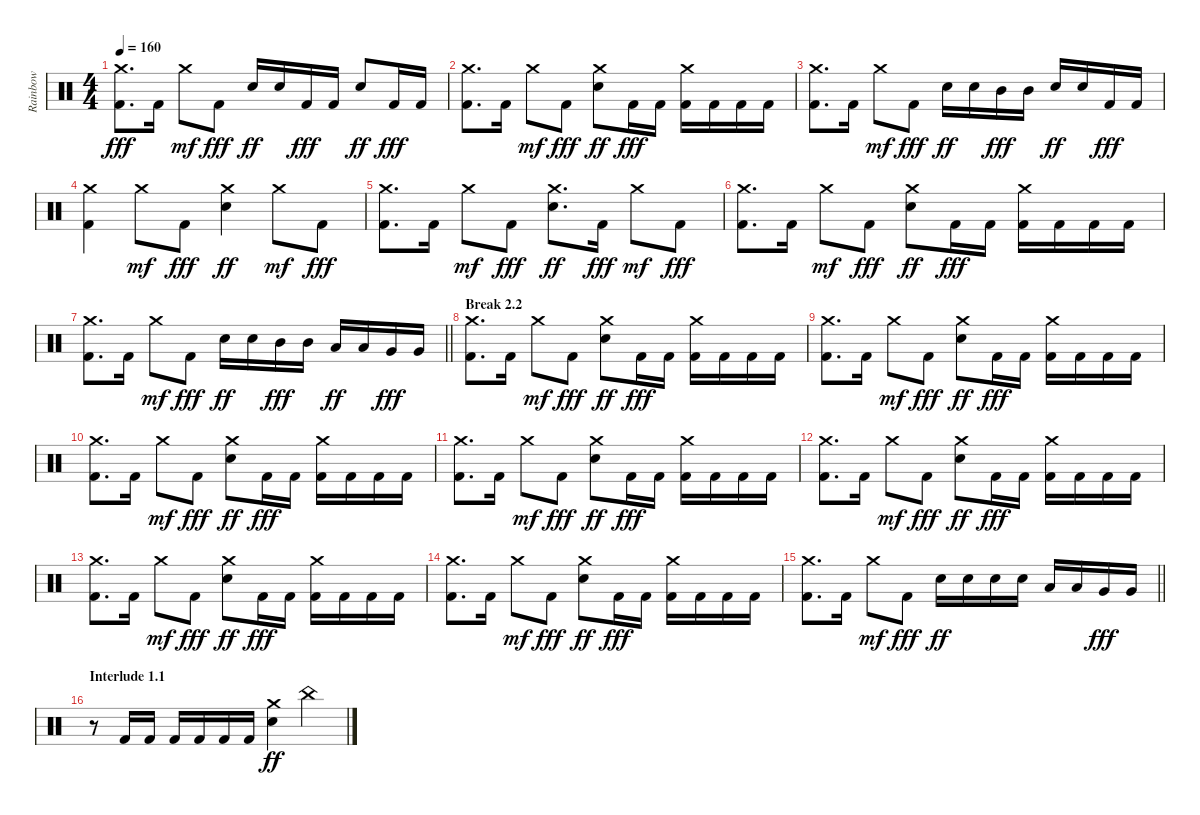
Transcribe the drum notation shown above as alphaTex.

\track ("Rainbow" "Rainbow") {instrument percussion}
\staff {score}
\articulation defaults
\ts (4 4)
\tempo 160
\clef neutral
\ks c
("Crash medium (hit)" "Kick (hit) 2").8{d dy fff} "Kick (hit) 2".16 "Crash medium (hit)".8{dy mf} "Kick (hit) 2".8{dy fff} "Electric Snare (hit)".16{dy ff} "Electric Snare (hit)".16 "Kick (hit) 2".16{dy fff} "Kick (hit) 2".16 "Electric Snare (hit)".8{dy ff} "Kick (hit) 2".16{dy fff} "Kick (hit) 2".16 |
("Crash medium (hit)" "Kick (hit) 2").8{d} "Kick (hit) 2".16 "Crash medium (hit)".8{dy mf} "Kick (hit) 2".8{dy fff} ("Crash medium (hit)" "Electric Snare (hit)").8{dy ff} "Kick (hit) 2".16{dy fff} "Kick (hit) 2".16 ("Crash medium (hit)" "Kick (hit) 2").16 "Kick (hit) 2".16 "Kick (hit) 2".16 "Kick (hit) 2".16 |
("Crash medium (hit)" "Kick (hit) 2").8{d} "Kick (hit) 2".16 "Crash medium (hit)".8{dy mf} "Kick (hit) 2".8{dy fff} "Electric Snare (hit)".16{dy ff} "Electric Snare (hit)".16 "Mid Tom (hit)".16{dy fff} "Mid Tom (hit)".16 "Electric Snare (hit)".16{dy ff} "Electric Snare (hit)".16 "Kick (hit) 2".16{dy fff} "Kick (hit) 2".16 |
("Crash medium (hit)" "Kick (hit) 2").4 "Crash medium (hit)".8{dy mf} "Kick (hit) 2".8{dy fff} ("Crash medium (hit)" "Electric Snare (hit)").4{dy ff} "Crash medium (hit)".8{dy mf} "Kick (hit) 2".8{dy fff} |
("Crash medium (hit)" "Kick (hit) 2").8{d} "Kick (hit) 2".16 "Crash medium (hit)".8{dy mf} "Kick (hit) 2".8{dy fff} ("Crash medium (hit)" "Electric Snare (hit)").8{d dy ff} "Kick (hit) 2".16{dy fff} "Crash medium (hit)".8{dy mf} "Kick (hit) 2".8{dy fff} |
("Crash medium (hit)" "Kick (hit) 2").8{d} "Kick (hit) 2".16 "Crash medium (hit)".8{dy mf} "Kick (hit) 2".8{dy fff} ("Crash medium (hit)" "Electric Snare (hit)").8{dy ff} "Kick (hit) 2".16{dy fff} "Kick (hit) 2".16 ("Crash medium (hit)" "Kick (hit) 2").16 "Kick (hit) 2".16 "Kick (hit) 2".16 "Kick (hit) 2".16 |
\barLineRight lightlight
("Crash medium (hit)" "Kick (hit) 2").8{d} "Kick (hit) 2".16 "Crash medium (hit)".8{dy mf} "Kick (hit) 2".8{dy fff} "Electric Snare (hit)".16{dy ff} "Electric Snare (hit)".16 "Mid Tom (hit)".16{dy fff} "Mid Tom (hit)".16 "Low Tom (hit)".16{dy ff} "Low Tom (hit)".16 "Very Low Tom (hit)".16{dy fff} "Very Low Tom (hit)".16 |
\section ("" "Break 2.2")
("Crash medium (hit)" "Kick (hit) 2").8{d} "Kick (hit) 2".16 "Crash medium (hit)".8{dy mf} "Kick (hit) 2".8{dy fff} ("Crash medium (hit)" "Electric Snare (hit)").8{dy ff} "Kick (hit) 2".16{dy fff} "Kick (hit) 2".16 ("Crash medium (hit)" "Kick (hit) 2").16 "Kick (hit) 2".16 "Kick (hit) 2".16 "Kick (hit) 2".16 |
("Crash medium (hit)" "Kick (hit) 2").8{d} "Kick (hit) 2".16 "Crash medium (hit)".8{dy mf} "Kick (hit) 2".8{dy fff} ("Crash medium (hit)" "Electric Snare (hit)").8{dy ff} "Kick (hit) 2".16{dy fff} "Kick (hit) 2".16 ("Crash medium (hit)" "Kick (hit) 2").16 "Kick (hit) 2".16 "Kick (hit) 2".16 "Kick (hit) 2".16 |
("Crash medium (hit)" "Kick (hit) 2").8{d} "Kick (hit) 2".16 "Crash medium (hit)".8{dy mf} "Kick (hit) 2".8{dy fff} ("Crash medium (hit)" "Electric Snare (hit)").8{dy ff} "Kick (hit) 2".16{dy fff} "Kick (hit) 2".16 ("Crash medium (hit)" "Kick (hit) 2").16 "Kick (hit) 2".16 "Kick (hit) 2".16 "Kick (hit) 2".16 |
("Crash medium (hit)" "Kick (hit) 2").8{d} "Kick (hit) 2".16 "Crash medium (hit)".8{dy mf} "Kick (hit) 2".8{dy fff} ("Crash medium (hit)" "Electric Snare (hit)").8{dy ff} "Kick (hit) 2".16{dy fff} "Kick (hit) 2".16 ("Crash medium (hit)" "Kick (hit) 2").16 "Kick (hit) 2".16 "Kick (hit) 2".16 "Kick (hit) 2".16 |
("Crash medium (hit)" "Kick (hit) 2").8{d} "Kick (hit) 2".16 "Crash medium (hit)".8{dy mf} "Kick (hit) 2".8{dy fff} ("Crash medium (hit)" "Electric Snare (hit)").8{dy ff} "Kick (hit) 2".16{dy fff} "Kick (hit) 2".16 ("Crash medium (hit)" "Kick (hit) 2").16 "Kick (hit) 2".16 "Kick (hit) 2".16 "Kick (hit) 2".16 |
("Crash medium (hit)" "Kick (hit) 2").8{d} "Kick (hit) 2".16 "Crash medium (hit)".8{dy mf} "Kick (hit) 2".8{dy fff} ("Crash medium (hit)" "Electric Snare (hit)").8{dy ff} "Kick (hit) 2".16{dy fff} "Kick (hit) 2".16 ("Crash medium (hit)" "Kick (hit) 2").16 "Kick (hit) 2".16 "Kick (hit) 2".16 "Kick (hit) 2".16 |
("Crash medium (hit)" "Kick (hit) 2").8{d} "Kick (hit) 2".16 "Crash medium (hit)".8{dy mf} "Kick (hit) 2".8{dy fff} ("Crash medium (hit)" "Electric Snare (hit)").8{dy ff} "Kick (hit) 2".16{dy fff} "Kick (hit) 2".16 ("Crash medium (hit)" "Kick (hit) 2").16 "Kick (hit) 2".16 "Kick (hit) 2".16 "Kick (hit) 2".16 |
\barLineRight lightlight
("Crash medium (hit)" "Kick (hit) 2").8{d} "Kick (hit) 2".16 "Crash medium (hit)".8{dy mf} "Kick (hit) 2".8{dy fff} "Electric Snare (hit)".16{dy ff} "Electric Snare (hit)".16 "Electric Snare (hit)".16 "Electric Snare (hit)".16 "Low Tom (hit)".16 "Low Tom (hit)".16 "Very Low Tom (hit)".16{dy fff} "Very Low Tom (hit)".16 |
\section ("" "Interlude 1.1")
r.8 "Kick (hit) 2".16 "Kick (hit) 2".16 "Kick (hit) 2".16 "Kick (hit) 2".16 "Kick (hit) 2".16 "Kick (hit) 2".16 ("Crash medium (hit)" "Electric Snare (hit)").4{dy ff} "China (hit)".4
